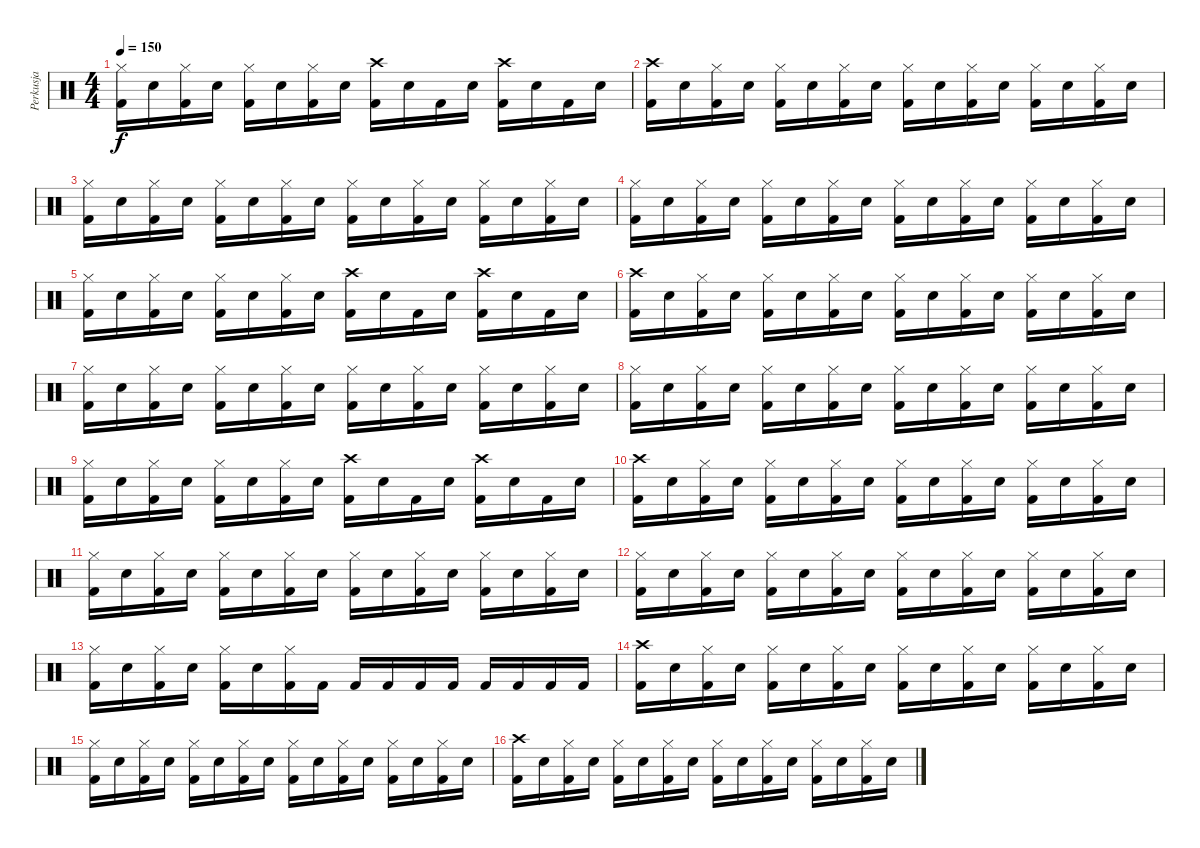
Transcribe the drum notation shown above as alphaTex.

\track ("Perkusja" "Perkusja") {instrument percussion}
\staff {score}
\articulation defaults
\ts (4 4)
\tempo 150
\clef neutral
\ks c
("Hi-Hat (closed)" "Kick (hit) 2").16{dy f} "Snare (hit) 2".16 ("Hi-Hat (closed)" "Kick (hit) 2").16 "Snare (hit) 2".16 ("Hi-Hat (closed)" "Kick (hit) 2").16 "Snare (hit) 2".16 ("Hi-Hat (closed)" "Kick (hit) 2").16 "Snare (hit) 2".16 ("Crash high (hit)" "Kick (hit) 2").16 "Snare (hit) 2".16 "Kick (hit) 2".16 "Snare (hit) 2".16 ("Crash high (hit)" "Kick (hit) 2").16 "Snare (hit) 2".16 "Kick (hit) 2".16 "Snare (hit) 2".16 |
("Crash high (hit)" "Kick (hit) 2").16 "Snare (hit) 2".16 ("Hi-Hat (closed)" "Kick (hit) 2").16 "Snare (hit) 2".16 ("Hi-Hat (closed)" "Kick (hit) 2").16 "Snare (hit) 2".16 ("Hi-Hat (closed)" "Kick (hit) 2").16 "Snare (hit) 2".16 ("Hi-Hat (closed)" "Kick (hit) 2").16 "Snare (hit) 2".16 ("Hi-Hat (closed)" "Kick (hit) 2").16 "Snare (hit) 2".16 ("Hi-Hat (closed)" "Kick (hit) 2").16 "Snare (hit) 2".16 ("Hi-Hat (closed)" "Kick (hit) 2").16 "Snare (hit) 2".16 |
("Hi-Hat (closed)" "Kick (hit) 2").16 "Snare (hit) 2".16 ("Hi-Hat (closed)" "Kick (hit) 2").16 "Snare (hit) 2".16 ("Hi-Hat (closed)" "Kick (hit) 2").16 "Snare (hit) 2".16 ("Hi-Hat (closed)" "Kick (hit) 2").16 "Snare (hit) 2".16 ("Hi-Hat (closed)" "Kick (hit) 2").16 "Snare (hit) 2".16 ("Hi-Hat (closed)" "Kick (hit) 2").16 "Snare (hit) 2".16 ("Hi-Hat (closed)" "Kick (hit) 2").16 "Snare (hit) 2".16 ("Hi-Hat (closed)" "Kick (hit) 2").16 "Snare (hit) 2".16 |
("Hi-Hat (closed)" "Kick (hit) 2").16 "Snare (hit) 2".16 ("Hi-Hat (closed)" "Kick (hit) 2").16 "Snare (hit) 2".16 ("Hi-Hat (closed)" "Kick (hit) 2").16 "Snare (hit) 2".16 ("Hi-Hat (closed)" "Kick (hit) 2").16 "Snare (hit) 2".16 ("Hi-Hat (closed)" "Kick (hit) 2").16 "Snare (hit) 2".16 ("Hi-Hat (closed)" "Kick (hit) 2").16 "Snare (hit) 2".16 ("Hi-Hat (closed)" "Kick (hit) 2").16 "Snare (hit) 2".16 ("Hi-Hat (closed)" "Kick (hit) 2").16 "Snare (hit) 2".16 |
("Hi-Hat (closed)" "Kick (hit) 2").16 "Snare (hit) 2".16 ("Hi-Hat (closed)" "Kick (hit) 2").16 "Snare (hit) 2".16 ("Hi-Hat (closed)" "Kick (hit) 2").16 "Snare (hit) 2".16 ("Hi-Hat (closed)" "Kick (hit) 2").16 "Snare (hit) 2".16 ("Crash high (hit)" "Kick (hit) 2").16 "Snare (hit) 2".16 "Kick (hit) 2".16 "Snare (hit) 2".16 ("Crash high (hit)" "Kick (hit) 2").16 "Snare (hit) 2".16 "Kick (hit) 2".16 "Snare (hit) 2".16 |
("Crash high (hit)" "Kick (hit) 2").16 "Snare (hit) 2".16 ("Hi-Hat (closed)" "Kick (hit) 2").16 "Snare (hit) 2".16 ("Hi-Hat (closed)" "Kick (hit) 2").16 "Snare (hit) 2".16 ("Hi-Hat (closed)" "Kick (hit) 2").16 "Snare (hit) 2".16 ("Hi-Hat (closed)" "Kick (hit) 2").16 "Snare (hit) 2".16 ("Hi-Hat (closed)" "Kick (hit) 2").16 "Snare (hit) 2".16 ("Hi-Hat (closed)" "Kick (hit) 2").16 "Snare (hit) 2".16 ("Hi-Hat (closed)" "Kick (hit) 2").16 "Snare (hit) 2".16 |
("Hi-Hat (closed)" "Kick (hit) 2").16 "Snare (hit) 2".16 ("Hi-Hat (closed)" "Kick (hit) 2").16 "Snare (hit) 2".16 ("Hi-Hat (closed)" "Kick (hit) 2").16 "Snare (hit) 2".16 ("Hi-Hat (closed)" "Kick (hit) 2").16 "Snare (hit) 2".16 ("Hi-Hat (closed)" "Kick (hit) 2").16 "Snare (hit) 2".16 ("Hi-Hat (closed)" "Kick (hit) 2").16 "Snare (hit) 2".16 ("Hi-Hat (closed)" "Kick (hit) 2").16 "Snare (hit) 2".16 ("Hi-Hat (closed)" "Kick (hit) 2").16 "Snare (hit) 2".16 |
("Hi-Hat (closed)" "Kick (hit) 2").16 "Snare (hit) 2".16 ("Hi-Hat (closed)" "Kick (hit) 2").16 "Snare (hit) 2".16 ("Hi-Hat (closed)" "Kick (hit) 2").16 "Snare (hit) 2".16 ("Hi-Hat (closed)" "Kick (hit) 2").16 "Snare (hit) 2".16 ("Hi-Hat (closed)" "Kick (hit) 2").16 "Snare (hit) 2".16 ("Hi-Hat (closed)" "Kick (hit) 2").16 "Snare (hit) 2".16 ("Hi-Hat (closed)" "Kick (hit) 2").16 "Snare (hit) 2".16 ("Hi-Hat (closed)" "Kick (hit) 2").16 "Snare (hit) 2".16 |
("Hi-Hat (closed)" "Kick (hit) 2").16 "Snare (hit) 2".16 ("Hi-Hat (closed)" "Kick (hit) 2").16 "Snare (hit) 2".16 ("Hi-Hat (closed)" "Kick (hit) 2").16 "Snare (hit) 2".16 ("Hi-Hat (closed)" "Kick (hit) 2").16 "Snare (hit) 2".16 ("Crash high (hit)" "Kick (hit) 2").16 "Snare (hit) 2".16 "Kick (hit) 2".16 "Snare (hit) 2".16 ("Crash high (hit)" "Kick (hit) 2").16 "Snare (hit) 2".16 "Kick (hit) 2".16 "Snare (hit) 2".16 |
("Crash high (hit)" "Kick (hit) 2").16 "Snare (hit) 2".16 ("Hi-Hat (closed)" "Kick (hit) 2").16 "Snare (hit) 2".16 ("Hi-Hat (closed)" "Kick (hit) 2").16 "Snare (hit) 2".16 ("Hi-Hat (closed)" "Kick (hit) 2").16 "Snare (hit) 2".16 ("Hi-Hat (closed)" "Kick (hit) 2").16 "Snare (hit) 2".16 ("Hi-Hat (closed)" "Kick (hit) 2").16 "Snare (hit) 2".16 ("Hi-Hat (closed)" "Kick (hit) 2").16 "Snare (hit) 2".16 ("Hi-Hat (closed)" "Kick (hit) 2").16 "Snare (hit) 2".16 |
("Hi-Hat (closed)" "Kick (hit) 2").16 "Snare (hit) 2".16 ("Hi-Hat (closed)" "Kick (hit) 2").16 "Snare (hit) 2".16 ("Hi-Hat (closed)" "Kick (hit) 2").16 "Snare (hit) 2".16 ("Hi-Hat (closed)" "Kick (hit) 2").16 "Snare (hit) 2".16 ("Hi-Hat (closed)" "Kick (hit) 2").16 "Snare (hit) 2".16 ("Hi-Hat (closed)" "Kick (hit) 2").16 "Snare (hit) 2".16 ("Hi-Hat (closed)" "Kick (hit) 2").16 "Snare (hit) 2".16 ("Hi-Hat (closed)" "Kick (hit) 2").16 "Snare (hit) 2".16 |
("Hi-Hat (closed)" "Kick (hit) 2").16 "Snare (hit) 2".16 ("Hi-Hat (closed)" "Kick (hit) 2").16 "Snare (hit) 2".16 ("Hi-Hat (closed)" "Kick (hit) 2").16 "Snare (hit) 2".16 ("Hi-Hat (closed)" "Kick (hit) 2").16 "Snare (hit) 2".16 ("Hi-Hat (closed)" "Kick (hit) 2").16 "Snare (hit) 2".16 ("Hi-Hat (closed)" "Kick (hit) 2").16 "Snare (hit) 2".16 ("Hi-Hat (closed)" "Kick (hit) 2").16 "Snare (hit) 2".16 ("Hi-Hat (closed)" "Kick (hit) 2").16 "Snare (hit) 2".16 |
("Hi-Hat (closed)" "Kick (hit) 2").16 "Snare (hit) 2".16 ("Hi-Hat (closed)" "Kick (hit) 2").16 "Snare (hit) 2".16 ("Hi-Hat (closed)" "Kick (hit) 2").16 "Snare (hit) 2".16 ("Hi-Hat (closed)" "Kick (hit) 2").16 "Kick (hit) 2".16 "Kick (hit) 2".16 "Kick (hit) 2".16 "Kick (hit) 2".16 "Kick (hit) 2".16 "Kick (hit) 2".16 "Kick (hit) 2".16 "Kick (hit) 2".16 "Kick (hit) 2".16 |
("Crash high (hit)" "Kick (hit) 2").16 "Snare (hit) 2".16 ("Hi-Hat (closed)" "Kick (hit) 2").16 "Snare (hit) 2".16 ("Hi-Hat (closed)" "Kick (hit) 2").16 "Snare (hit) 2".16 ("Hi-Hat (closed)" "Kick (hit) 2").16 "Snare (hit) 2".16 ("Hi-Hat (closed)" "Kick (hit) 2").16 "Snare (hit) 2".16 ("Hi-Hat (closed)" "Kick (hit) 2").16 "Snare (hit) 2".16 ("Hi-Hat (closed)" "Kick (hit) 2").16 "Snare (hit) 2".16 ("Hi-Hat (closed)" "Kick (hit) 2").16 "Snare (hit) 2".16 |
("Hi-Hat (closed)" "Kick (hit) 2").16 "Snare (hit) 2".16 ("Hi-Hat (closed)" "Kick (hit) 2").16 "Snare (hit) 2".16 ("Hi-Hat (closed)" "Kick (hit) 2").16 "Snare (hit) 2".16 ("Hi-Hat (closed)" "Kick (hit) 2").16 "Snare (hit) 2".16 ("Hi-Hat (closed)" "Kick (hit) 2").16 "Snare (hit) 2".16 ("Hi-Hat (closed)" "Kick (hit) 2").16 "Snare (hit) 2".16 ("Hi-Hat (closed)" "Kick (hit) 2").16 "Snare (hit) 2".16 ("Hi-Hat (closed)" "Kick (hit) 2").16 "Snare (hit) 2".16 |
("Crash high (hit)" "Kick (hit) 2").16 "Snare (hit) 2".16 ("Hi-Hat (closed)" "Kick (hit) 2").16 "Snare (hit) 2".16 ("Hi-Hat (closed)" "Kick (hit) 2").16 "Snare (hit) 2".16 ("Hi-Hat (closed)" "Kick (hit) 2").16 "Snare (hit) 2".16 ("Hi-Hat (closed)" "Kick (hit) 2").16 "Snare (hit) 2".16 ("Hi-Hat (closed)" "Kick (hit) 2").16 "Snare (hit) 2".16 ("Hi-Hat (closed)" "Kick (hit) 2").16 "Snare (hit) 2".16 ("Hi-Hat (closed)" "Kick (hit) 2").16 "Snare (hit) 2".16
